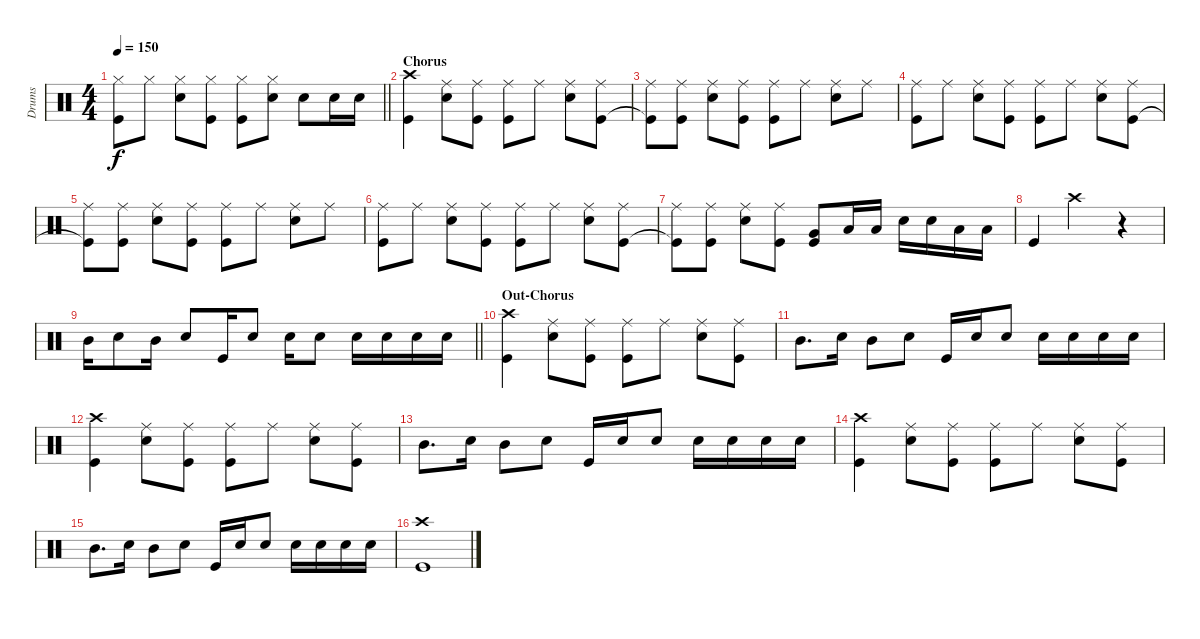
\track ("Drums" "Drums") {instrument percussion}
\staff {score}
\articulation defaults
\ts (4 4)
\tempo 150
\clef neutral
\barLineRight lightlight
\ks c
("Hi-Hat (closed)" "Kick (hit)").8{dy f} "Hi-Hat (closed)".8 ("Hi-Hat (closed)" "Snare (hit) 2").8 ("Hi-Hat (closed)" "Kick (hit)").8 ("Hi-Hat (closed)" "Kick (hit)").8 ("Hi-Hat (closed)" "Snare (hit) 2").8 "Snare (hit) 2".8 "Snare (hit) 2".16 "Snare (hit) 2".16 |
\section ("" "Chorus")
("Crash high (hit)" "Kick (hit)").4 ("Ride (middle)" "Snare (hit) 2").8 ("Ride (middle)" "Kick (hit)").8 ("Ride (middle)" "Kick (hit)").8 "Ride (middle)".8 ("Ride (middle)" "Snare (hit) 2").8 ("Ride (middle)" "Kick (hit)").8 |
("Ride (middle)" "Kick (hit)"{t}).8 ("Ride (middle)" "Kick (hit)").8 ("Ride (middle)" "Snare (hit) 2").8 ("Ride (middle)" "Kick (hit)").8 ("Ride (middle)" "Kick (hit)").8 "Ride (middle)".8 ("Ride (middle)" "Snare (hit) 2").8 "Ride (middle)".8 |
("Ride (middle)" "Kick (hit)").8 "Ride (middle)".8 ("Ride (middle)" "Snare (hit) 2").8 ("Ride (middle)" "Kick (hit)").8 ("Ride (middle)" "Kick (hit)").8 "Ride (middle)".8 ("Ride (middle)" "Snare (hit) 2").8 ("Ride (middle)" "Kick (hit)").8 |
("Ride (middle)" "Kick (hit)"{t}).8 ("Ride (middle)" "Kick (hit)").8 ("Ride (middle)" "Snare (hit) 2").8 ("Ride (middle)" "Kick (hit)").8 ("Ride (middle)" "Kick (hit)").8 "Ride (middle)".8 ("Ride (middle)" "Snare (hit) 2").8 "Ride (middle)".8 |
("Ride (middle)" "Kick (hit)").8 "Ride (middle)".8 ("Ride (middle)" "Snare (hit) 2").8 ("Ride (middle)" "Kick (hit)").8 ("Ride (middle)" "Kick (hit)").8 "Ride (middle)".8 ("Ride (middle)" "Snare (hit) 2").8 ("Ride (middle)" "Kick (hit)").8 |
("Ride (middle)" "Kick (hit)"{t}).8 ("Ride (middle)" "Kick (hit)").8 ("Ride (middle)" "Snare (hit) 2").8 ("Ride (middle)" "Kick (hit)").8 ("Very Low Tom (hit)" "Kick (hit)").8 "Low Floor Tom (hit)".16 "Low Floor Tom (hit)".16 "Snare (hit) 2".16 "Snare (hit) 2".16 "Low Floor Tom (hit)".16 "Low Floor Tom (hit)".16 |
"Kick (hit)".4 "Crash high (hit)".2 r.4 |
\barLineRight lightlight "Mid Tom (hit)".16 "Snare (hit) 2".8 "Mid Tom (hit)".16 "Snare (hit) 2".8 "Kick (hit)".16 "Snare (hit) 2".8 "Snare (hit) 2".16 "Snare (hit) 2".8 "Snare (hit) 2".16 "Snare (hit) 2".16 "Snare (hit) 2".16 "Snare (hit) 2".16
|
\section ("" "Out-Chorus")
("Crash high (hit)" "Kick (hit)").4 ("Ride (middle)" "Snare (hit) 2").8 ("Ride (middle)" "Kick (hit)").8 ("Ride (middle)" "Kick (hit)").8 "Ride (middle)".8 ("Ride (middle)" "Snare (hit) 2").8 ("Ride (middle)" "Kick (hit)").8 |
"Mid Tom (hit)".8{d} "Snare (hit) 2".16 "Mid Tom (hit)".8 "Snare (hit) 2".8 "Kick (hit)".16 "Snare (hit) 2".16 "Snare (hit) 2".8 "Snare (hit) 2".16 "Snare (hit) 2".16 "Snare (hit) 2".16 "Snare (hit) 2".16 |
("Crash high (hit)" "Kick (hit)").4 ("Ride (middle)" "Snare (hit) 2").8 ("Ride (middle)" "Kick (hit)").8 ("Ride (middle)" "Kick (hit)").8 "Ride (middle)".8 ("Ride (middle)" "Snare (hit) 2").8 ("Ride (middle)" "Kick (hit)").8 |
"Mid Tom (hit)".8{d} "Snare (hit) 2".16 "Mid Tom (hit)".8 "Snare (hit) 2".8 "Kick (hit)".16 "Snare (hit) 2".16 "Snare (hit) 2".8 "Snare (hit) 2".16 "Snare (hit) 2".16 "Snare (hit) 2".16 "Snare (hit) 2".16 |
("Crash high (hit)" "Kick (hit)").4 ("Ride (middle)" "Snare (hit) 2").8 ("Ride (middle)" "Kick (hit)").8 ("Ride (middle)" "Kick (hit)").8 "Ride (middle)".8 ("Ride (middle)" "Snare (hit) 2").8 ("Ride (middle)" "Kick (hit)").8 |
"Mid Tom (hit)".8{d} "Snare (hit) 2".16 "Mid Tom (hit)".8 "Snare (hit) 2".8 "Kick (hit)".16 "Snare (hit) 2".16 "Snare (hit) 2".8 "Snare (hit) 2".16 "Snare (hit) 2".16 "Snare (hit) 2".16 "Snare (hit) 2".16 |
("Crash high (hit)" "Kick (hit)").1
